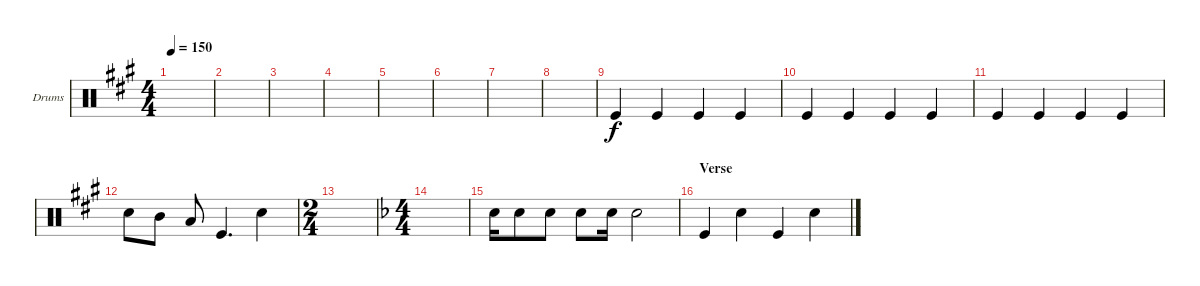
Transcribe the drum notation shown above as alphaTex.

\defaultSystemsLayout 4
\bracketExtendMode groupsimilarinstruments
\firstSystemTrackNameOrientation horizontal
\otherSystemsTrackNameOrientation horizontal
\track ("Drumkit" "Drums") {instrument percussion}
\staff {score}
\articulation defaults
\ts (4 4)
\tempo 150
\clef neutral
\scale
0.333333
\ks a
|
\scale
0.333333 |
\scale
0.333333 |
\scale
0.333333 |
\scale
0.333333 |
\scale
0.333333 |
\scale
0.333333 |
\scale
0.333333 |
\scale
0.333333 "Kick (hit)".4 "Kick (hit)".4 "Kick (hit)".4 "Kick (hit)".4 |
\scale
0.333333 "Kick (hit)".4 "Kick (hit)".4 "Kick (hit)".4 "Kick (hit)".4 |
\scale
0.333333 "Kick (hit)".4 "Kick (hit)".4 "Kick (hit)".4 "Kick (hit)".4 |
\scale
0.178125 "Snare (hit) 2".8 "Mid Tom (hit)".8 "Low Tom (hit)".8 "Kick (hit)".4{d} "Snare (hit) 2".4 |
\ts (2 4)
\scale
0.396875 |
\ts (4 4)
\scale
0.425
\ks f
|
\scale
0.333333 "Snare (hit) 2".16 "Snare (hit) 2".8 "Snare (hit) 2".8 "Snare (hit) 2".8 "Snare (hit) 2".16 "Snare (hit) 2".2 |
\section ("" "Verse")
\scale
0.333333 "Kick (hit)".4 "Snare (hit) 2".4 "Kick (hit)".4 "Snare (hit) 2".4
